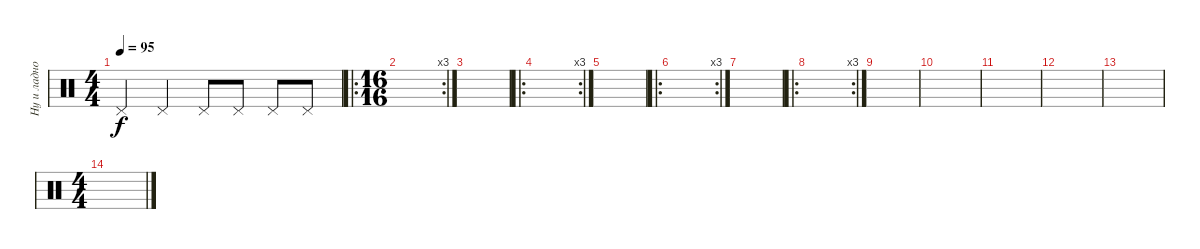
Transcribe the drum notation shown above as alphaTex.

\track ("Ну и ладно!" "Ну и ладно") {instrument percussion}
\staff {score}
\articulation defaults
\ts (4 4)
\tempo 95
\clef neutral
\ks c "Pedal Hi-Hat (hit)".4{dy f} "Pedal Hi-Hat (hit)".4 "Pedal Hi-Hat (hit)".8 "Pedal Hi-Hat (hit)".8 "Pedal Hi-Hat (hit)".8 "Pedal Hi-Hat (hit)".8
|
\ro
\rc 3
\ts (16 16)
|
|
\ro
\rc 3
|
|
\ro
\rc 3
|
|
\ro
\rc 3
|
|
|
|
|
|
\ts (4 4)
